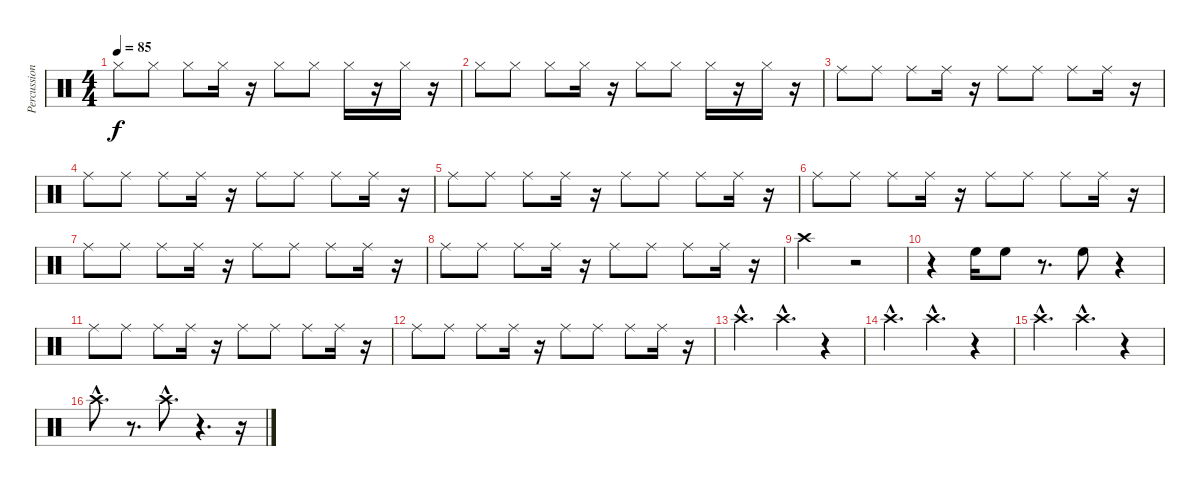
\track ("Percussion" "Percussion") {instrument percussion}
\staff {score}
\articulation defaults
\ts (4 4)
\tempo 85
\clef neutral
\ks c "Hi-Hat (closed)".8{dy f} "Hi-Hat (closed)".8 "Hi-Hat (closed)".8 "Hi-Hat (closed)".16
r.16 "Hi-Hat (closed)".8 "Hi-Hat (closed)".8 "Hi-Hat (closed)".16 r.16 "Hi-Hat (closed)".16 r.16 |
"Hi-Hat (closed)".8 "Hi-Hat (closed)".8 "Hi-Hat (closed)".8 "Hi-Hat (closed)".16 r.16 "Hi-Hat (closed)".8 "Hi-Hat (closed)".8 "Hi-Hat (closed)".16 r.16 "Hi-Hat (closed)".16 r.16 |
"Ride (middle)".8 "Ride (middle)".8 "Ride (middle)".8 "Ride (middle)".16 r.16 "Ride (middle)".8 "Ride (middle)".8 "Ride (middle)".8 "Ride (middle)".16 r.16 |
"Ride (middle)".8 "Ride (middle)".8 "Ride (middle)".8 "Ride (middle)".16 r.16 "Ride (middle)".8 "Ride (middle)".8 "Ride (middle)".8 "Ride (middle)".16 r.16 |
"Ride (middle)".8 "Ride (middle)".8 "Ride (middle)".8 "Ride (middle)".16 r.16 "Ride (middle)".8 "Ride (middle)".8 "Ride (middle)".8 "Ride (middle)".16 r.16 |
"Ride (middle)".8 "Ride (middle)".8 "Ride (middle)".8 "Ride (middle)".16 r.16 "Ride (middle)".8 "Ride (middle)".8 "Ride (middle)".8 "Ride (middle)".16 r.16 |
"Ride (middle)".8 "Ride (middle)".8 "Ride (middle)".8 "Ride (middle)".16 r.16 "Ride (middle)".8 "Ride (middle)".8 "Ride (middle)".8 "Ride (middle)".16 r.16 |
"Ride (middle)".8 "Ride (middle)".8 "Ride (middle)".8 "Ride (middle)".16 r.16 "Ride (middle)".8 "Ride (middle)".8 "Ride (middle)".8 "Ride (middle)".16 r.16 |
"Crash high (hit)".2 r.2 |
r.4 "High Floor Tom (hit)".16 "High Floor Tom (hit)".8 r.8{d} "High Floor Tom (hit)".8 r.4 |
"Ride (middle)".8 "Ride (middle)".8 "Ride (middle)".8 "Ride (middle)".16 r.16 "Ride (middle)".8 "Ride (middle)".8 "Ride (middle)".8 "Ride (middle)".16 r.16 |
"Ride (middle)".8 "Ride (middle)".8 "Ride (middle)".8 "Ride (middle)".16 r.16 "Ride (middle)".8 "Ride (middle)".8 "Ride (middle)".8 "Ride (middle)".16 r.16 |
"Crash high (hit)"{hac}.4{d} "Crash high (hit)"{hac}.4{d} r.4 |
"Crash high (hit)"{hac}.4{d} "Crash high (hit)"{hac}.4{d} r.4 |
"Crash high (hit)"{hac}.4{d} "Crash high (hit)"{hac}.4{d} r.4 |
"Crash high (hit)"{hac}.8{d} r.8{d} "Crash high (hit)"{hac}.8{d} r.4{d} r.16
